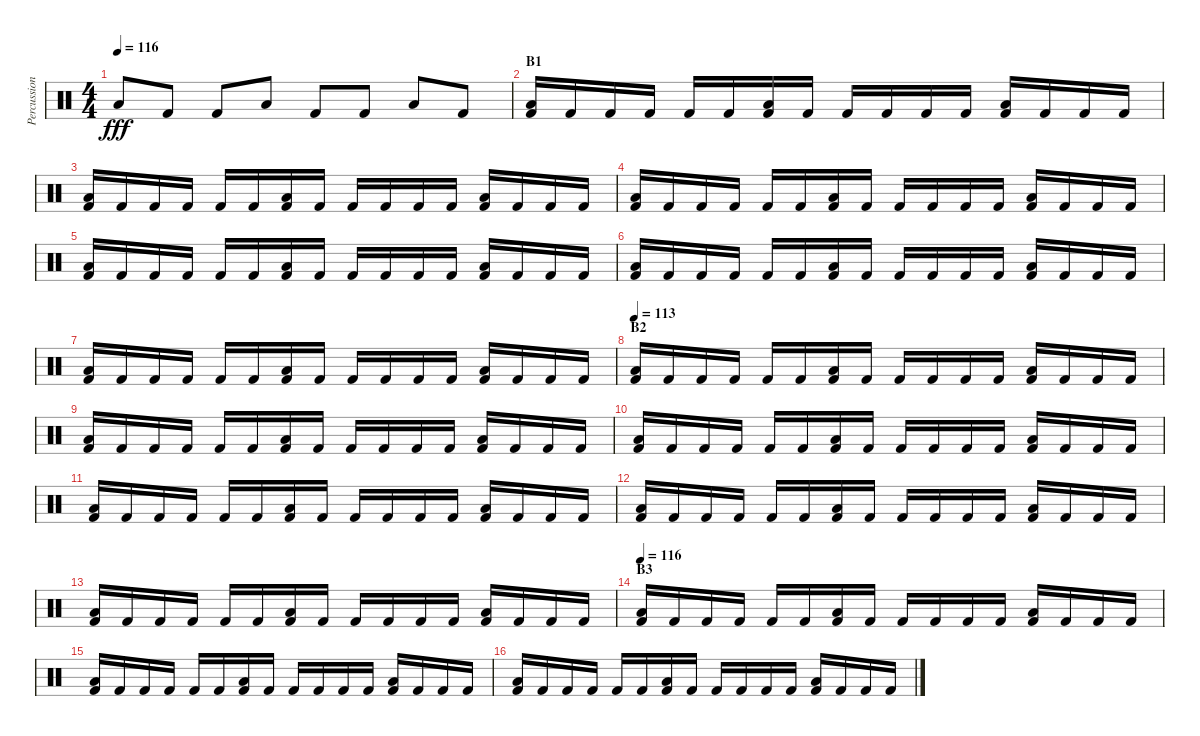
\track ("Percussion" "Percussion") {instrument percussion}
\staff {score}
\articulation defaults
\ts (4 4)
\tempo 116
\clef neutral
\ks c "Low Tom (hit)".8{dy fff} "Kick (hit) 2".8 "Kick (hit) 2".8 "Low Tom (hit)".8 "Kick (hit) 2".8 "Kick (hit) 2".8 "Low Tom (hit)".8 "Kick (hit) 2".8
|
\section ("" "B1")
("Kick (hit) 2" "Low Tom (hit)").16 "Kick (hit) 2".16 "Kick (hit) 2".16 "Kick (hit) 2".16 "Kick (hit) 2".16 "Kick (hit) 2".16 ("Kick (hit) 2" "Low Tom (hit)").16 "Kick (hit) 2".16 "Kick (hit) 2".16 "Kick (hit) 2".16 "Kick (hit) 2".16 "Kick (hit) 2".16 ("Kick (hit) 2" "Low Tom (hit)").16 "Kick (hit) 2".16 "Kick (hit) 2".16 "Kick (hit) 2".16 |
("Kick (hit) 2" "Low Tom (hit)").16 "Kick (hit) 2".16 "Kick (hit) 2".16 "Kick (hit) 2".16 "Kick (hit) 2".16 "Kick (hit) 2".16 ("Kick (hit) 2" "Low Tom (hit)").16 "Kick (hit) 2".16 "Kick (hit) 2".16 "Kick (hit) 2".16 "Kick (hit) 2".16 "Kick (hit) 2".16 ("Kick (hit) 2" "Low Tom (hit)").16 "Kick (hit) 2".16 "Kick (hit) 2".16 "Kick (hit) 2".16 |
("Kick (hit) 2" "Low Tom (hit)").16 "Kick (hit) 2".16 "Kick (hit) 2".16 "Kick (hit) 2".16 "Kick (hit) 2".16 "Kick (hit) 2".16 ("Kick (hit) 2" "Low Tom (hit)").16 "Kick (hit) 2".16 "Kick (hit) 2".16 "Kick (hit) 2".16 "Kick (hit) 2".16 "Kick (hit) 2".16 ("Kick (hit) 2" "Low Tom (hit)").16 "Kick (hit) 2".16 "Kick (hit) 2".16 "Kick (hit) 2".16 |
("Kick (hit) 2" "Low Tom (hit)").16 "Kick (hit) 2".16 "Kick (hit) 2".16 "Kick (hit) 2".16 "Kick (hit) 2".16 "Kick (hit) 2".16 ("Kick (hit) 2" "Low Tom (hit)").16 "Kick (hit) 2".16 "Kick (hit) 2".16 "Kick (hit) 2".16 "Kick (hit) 2".16 "Kick (hit) 2".16 ("Kick (hit) 2" "Low Tom (hit)").16 "Kick (hit) 2".16 "Kick (hit) 2".16 "Kick (hit) 2".16 |
("Kick (hit) 2" "Low Tom (hit)").16 "Kick (hit) 2".16 "Kick (hit) 2".16 "Kick (hit) 2".16 "Kick (hit) 2".16 "Kick (hit) 2".16 ("Kick (hit) 2" "Low Tom (hit)").16 "Kick (hit) 2".16 "Kick (hit) 2".16 "Kick (hit) 2".16 "Kick (hit) 2".16 "Kick (hit) 2".16 ("Kick (hit) 2" "Low Tom (hit)").16 "Kick (hit) 2".16 "Kick (hit) 2".16 "Kick (hit) 2".16 |
("Kick (hit) 2" "Low Tom (hit)").16 "Kick (hit) 2".16 "Kick (hit) 2".16 "Kick (hit) 2".16 "Kick (hit) 2".16 "Kick (hit) 2".16 ("Kick (hit) 2" "Low Tom (hit)").16 "Kick (hit) 2".16 "Kick (hit) 2".16 "Kick (hit) 2".16 "Kick (hit) 2".16 "Kick (hit) 2".16 ("Kick (hit) 2" "Low Tom (hit)").16 "Kick (hit) 2".16 "Kick (hit) 2".16 "Kick (hit) 2".16 |
\section ("" "B2")
\tempo 113
("Kick (hit) 2" "Low Tom (hit)").16 "Kick (hit) 2".16 "Kick (hit) 2".16 "Kick (hit) 2".16 "Kick (hit) 2".16 "Kick (hit) 2".16 ("Kick (hit) 2" "Low Tom (hit)").16 "Kick (hit) 2".16 "Kick (hit) 2".16 "Kick (hit) 2".16 "Kick (hit) 2".16 "Kick (hit) 2".16 ("Kick (hit) 2" "Low Tom (hit)").16 "Kick (hit) 2".16 "Kick (hit) 2".16 "Kick (hit) 2".16 |
("Kick (hit) 2" "Low Tom (hit)").16 "Kick (hit) 2".16 "Kick (hit) 2".16 "Kick (hit) 2".16 "Kick (hit) 2".16 "Kick (hit) 2".16 ("Kick (hit) 2" "Low Tom (hit)").16 "Kick (hit) 2".16 "Kick (hit) 2".16 "Kick (hit) 2".16 "Kick (hit) 2".16 "Kick (hit) 2".16 ("Kick (hit) 2" "Low Tom (hit)").16 "Kick (hit) 2".16 "Kick (hit) 2".16 "Kick (hit) 2".16 |
("Kick (hit) 2" "Low Tom (hit)").16 "Kick (hit) 2".16 "Kick (hit) 2".16 "Kick (hit) 2".16 "Kick (hit) 2".16 "Kick (hit) 2".16 ("Kick (hit) 2" "Low Tom (hit)").16 "Kick (hit) 2".16 "Kick (hit) 2".16 "Kick (hit) 2".16 "Kick (hit) 2".16 "Kick (hit) 2".16 ("Kick (hit) 2" "Low Tom (hit)").16 "Kick (hit) 2".16 "Kick (hit) 2".16 "Kick (hit) 2".16 |
("Kick (hit) 2" "Low Tom (hit)").16 "Kick (hit) 2".16 "Kick (hit) 2".16 "Kick (hit) 2".16 "Kick (hit) 2".16 "Kick (hit) 2".16 ("Kick (hit) 2" "Low Tom (hit)").16 "Kick (hit) 2".16 "Kick (hit) 2".16 "Kick (hit) 2".16 "Kick (hit) 2".16 "Kick (hit) 2".16 ("Kick (hit) 2" "Low Tom (hit)").16 "Kick (hit) 2".16 "Kick (hit) 2".16 "Kick (hit) 2".16 |
("Kick (hit) 2" "Low Tom (hit)").16 "Kick (hit) 2".16 "Kick (hit) 2".16 "Kick (hit) 2".16 "Kick (hit) 2".16 "Kick (hit) 2".16 ("Kick (hit) 2" "Low Tom (hit)").16 "Kick (hit) 2".16 "Kick (hit) 2".16 "Kick (hit) 2".16 "Kick (hit) 2".16 "Kick (hit) 2".16 ("Kick (hit) 2" "Low Tom (hit)").16 "Kick (hit) 2".16 "Kick (hit) 2".16 "Kick (hit) 2".16 |
("Kick (hit) 2" "Low Tom (hit)").16 "Kick (hit) 2".16 "Kick (hit) 2".16 "Kick (hit) 2".16 "Kick (hit) 2".16 "Kick (hit) 2".16 ("Kick (hit) 2" "Low Tom (hit)").16 "Kick (hit) 2".16 "Kick (hit) 2".16 "Kick (hit) 2".16 "Kick (hit) 2".16 "Kick (hit) 2".16 ("Kick (hit) 2" "Low Tom (hit)").16 "Kick (hit) 2".16 "Kick (hit) 2".16 "Kick (hit) 2".16 |
\section ("" "B3")
\tempo 116
("Kick (hit) 2" "Low Tom (hit)").16 "Kick (hit) 2".16 "Kick (hit) 2".16 "Kick (hit) 2".16 "Kick (hit) 2".16 "Kick (hit) 2".16 ("Kick (hit) 2" "Low Tom (hit)").16 "Kick (hit) 2".16 "Kick (hit) 2".16 "Kick (hit) 2".16 "Kick (hit) 2".16 "Kick (hit) 2".16 ("Kick (hit) 2" "Low Tom (hit)").16 "Kick (hit) 2".16 "Kick (hit) 2".16 "Kick (hit) 2".16 |
("Kick (hit) 2" "Low Tom (hit)").16 "Kick (hit) 2".16 "Kick (hit) 2".16 "Kick (hit) 2".16 "Kick (hit) 2".16 "Kick (hit) 2".16 ("Kick (hit) 2" "Low Tom (hit)").16 "Kick (hit) 2".16 "Kick (hit) 2".16 "Kick (hit) 2".16 "Kick (hit) 2".16 "Kick (hit) 2".16 ("Kick (hit) 2" "Low Tom (hit)").16 "Kick (hit) 2".16 "Kick (hit) 2".16 "Kick (hit) 2".16 |
("Kick (hit) 2" "Low Tom (hit)").16 "Kick (hit) 2".16 "Kick (hit) 2".16 "Kick (hit) 2".16 "Kick (hit) 2".16 "Kick (hit) 2".16 ("Kick (hit) 2" "Low Tom (hit)").16 "Kick (hit) 2".16 "Kick (hit) 2".16 "Kick (hit) 2".16 "Kick (hit) 2".16 "Kick (hit) 2".16 ("Kick (hit) 2" "Low Tom (hit)").16 "Kick (hit) 2".16 "Kick (hit) 2".16 "Kick (hit) 2".16
